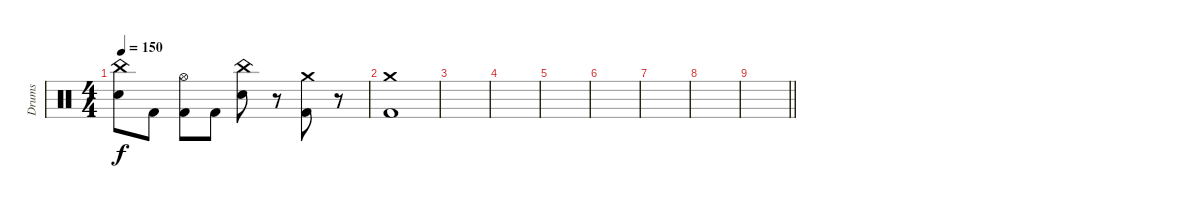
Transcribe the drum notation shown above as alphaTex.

\track ("Drums" "Drums") {instrument percussion}
\staff {score}
\articulation defaults
\ts (4 4)
\tempo 150
\clef neutral
\ks c
("China (hit)" "Electric Snare (hit)").8{dy f} "Kick (hit) 2".8 ("Hi-Hat (open)" "Kick (hit) 2").8 "Kick (hit) 2".8 ("China (hit)" "Electric Snare (hit)").8 r.8 ("Crash medium (hit)" "Kick (hit) 2").8 r.8 |
("Crash medium (hit)" "Kick (hit) 2").1 |
|
|
|
|
|
|
\barLineRight lightlight
